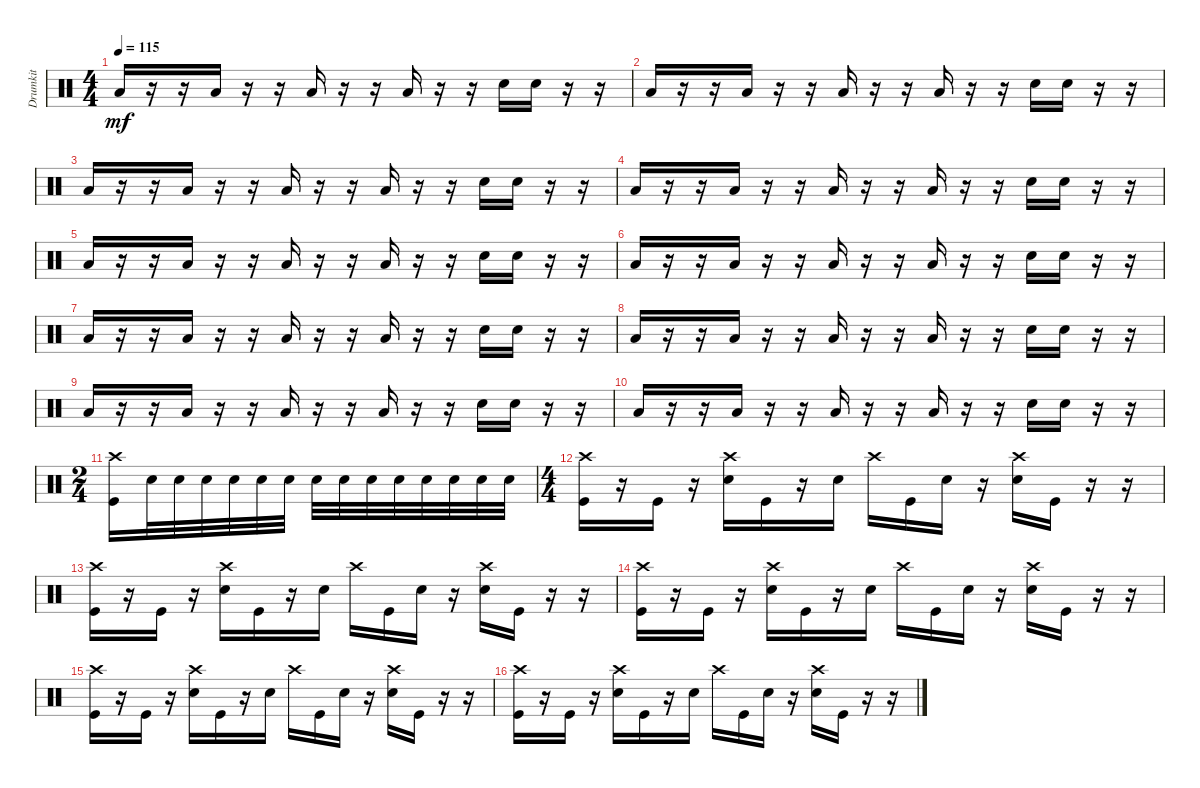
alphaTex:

\track ("Drumkit" "Drumkit") {instrument percussion}
\staff {score}
\articulation defaults
\ts (4 4)
\tempo 115
\clef neutral
\ks c "Low Tom (hit)".16{dy mf}
r.16 r.16 "Low Tom (hit)".16 r.16 r.16 "Low Tom (hit)".16 r.16 r.16 "Low Tom (hit)".16 r.16 r.16 "Snare (hit) 2".16 "Snare (hit) 2".16 r.16 r.16 |
"Low Tom (hit)".16 r.16 r.16 "Low Tom (hit)".16 r.16 r.16 "Low Tom (hit)".16 r.16 r.16 "Low Tom (hit)".16 r.16 r.16 "Snare (hit) 2".16 "Snare (hit) 2".16 r.16 r.16 |
"Low Tom (hit)".16 r.16 r.16 "Low Tom (hit)".16 r.16 r.16 "Low Tom (hit)".16 r.16 r.16 "Low Tom (hit)".16 r.16 r.16 "Snare (hit) 2".16 "Snare (hit) 2".16 r.16 r.16 |
"Low Tom (hit)".16 r.16 r.16 "Low Tom (hit)".16 r.16 r.16 "Low Tom (hit)".16 r.16 r.16 "Low Tom (hit)".16 r.16 r.16 "Snare (hit) 2".16 "Snare (hit) 2".16 r.16 r.16 |
"Low Tom (hit)".16 r.16 r.16 "Low Tom (hit)".16 r.16 r.16 "Low Tom (hit)".16 r.16 r.16 "Low Tom (hit)".16 r.16 r.16 "Snare (hit) 2".16 "Snare (hit) 2".16 r.16 r.16 |
"Low Tom (hit)".16 r.16 r.16 "Low Tom (hit)".16 r.16 r.16 "Low Tom (hit)".16 r.16 r.16 "Low Tom (hit)".16 r.16 r.16 "Snare (hit) 2".16 "Snare (hit) 2".16 r.16 r.16 |
"Low Tom (hit)".16 r.16 r.16 "Low Tom (hit)".16 r.16 r.16 "Low Tom (hit)".16 r.16 r.16 "Low Tom (hit)".16 r.16 r.16 "Snare (hit) 2".16 "Snare (hit) 2".16 r.16 r.16 |
"Low Tom (hit)".16 r.16 r.16 "Low Tom (hit)".16 r.16 r.16 "Low Tom (hit)".16 r.16 r.16 "Low Tom (hit)".16 r.16 r.16 "Snare (hit) 2".16 "Snare (hit) 2".16 r.16 r.16 |
"Low Tom (hit)".16 r.16 r.16 "Low Tom (hit)".16 r.16 r.16 "Low Tom (hit)".16 r.16 r.16 "Low Tom (hit)".16 r.16 r.16 "Snare (hit) 2".16 "Snare (hit) 2".16 r.16 r.16 |
"Low Tom (hit)".16 r.16 r.16 "Low Tom (hit)".16 r.16 r.16 "Low Tom (hit)".16 r.16 r.16 "Low Tom (hit)".16 r.16 r.16 "Snare (hit) 2".16 "Snare (hit) 2".16 r.16 r.16 |
\ts (2 4)
("Kick (hit)" "Crash high (hit)").16 "Snare (hit) 2".32 "Snare (hit) 2".32 "Snare (hit) 2".32 "Snare (hit) 2".32 "Snare (hit) 2".32 "Snare (hit) 2".32 "Snare (hit) 2".32 "Snare (hit) 2".32 "Snare (hit) 2".32 "Snare (hit) 2".32 "Snare (hit) 2".32 "Snare (hit) 2".32 "Snare (hit) 2".32 "Snare (hit) 2".32 |
\ts (4 4)
("Kick (hit)" "Crash high (hit)").16 r.16 "Kick (hit)".16 r.16 ("Snare (hit) 2" "Crash high (hit)").16 "Kick (hit)".16 r.16 "Snare (hit) 2".16 "Crash high (hit)".16 "Kick (hit)".16 "Snare (hit) 2".16 r.16 ("Snare (hit) 2" "Crash high (hit)").16 "Kick (hit)".16 r.16 r.16 |
("Kick (hit)" "Crash high (hit)").16 r.16 "Kick (hit)".16 r.16 ("Snare (hit) 2" "Crash high (hit)").16 "Kick (hit)".16 r.16 "Snare (hit) 2".16 "Crash high (hit)".16 "Kick (hit)".16 "Snare (hit) 2".16 r.16 ("Snare (hit) 2" "Crash high (hit)").16 "Kick (hit)".16 r.16 r.16 |
("Kick (hit)" "Crash high (hit)").16 r.16 "Kick (hit)".16 r.16 ("Snare (hit) 2" "Crash high (hit)").16 "Kick (hit)".16 r.16 "Snare (hit) 2".16 "Crash high (hit)".16 "Kick (hit)".16 "Snare (hit) 2".16 r.16 ("Snare (hit) 2" "Crash high (hit)").16 "Kick (hit)".16 r.16 r.16 |
("Kick (hit)" "Crash high (hit)").16 r.16 "Kick (hit)".16 r.16 ("Snare (hit) 2" "Crash high (hit)").16 "Kick (hit)".16 r.16 "Snare (hit) 2".16 "Crash high (hit)".16 "Kick (hit)".16 "Snare (hit) 2".16 r.16 ("Snare (hit) 2" "Crash high (hit)").16 "Kick (hit)".16 r.16 r.16 |
("Kick (hit)" "Crash high (hit)").16 r.16 "Kick (hit)".16 r.16 ("Snare (hit) 2" "Crash high (hit)").16 "Kick (hit)".16 r.16 "Snare (hit) 2".16 "Crash high (hit)".16 "Kick (hit)".16 "Snare (hit) 2".16 r.16 ("Snare (hit) 2" "Crash high (hit)").16 "Kick (hit)".16 r.16 r.16
